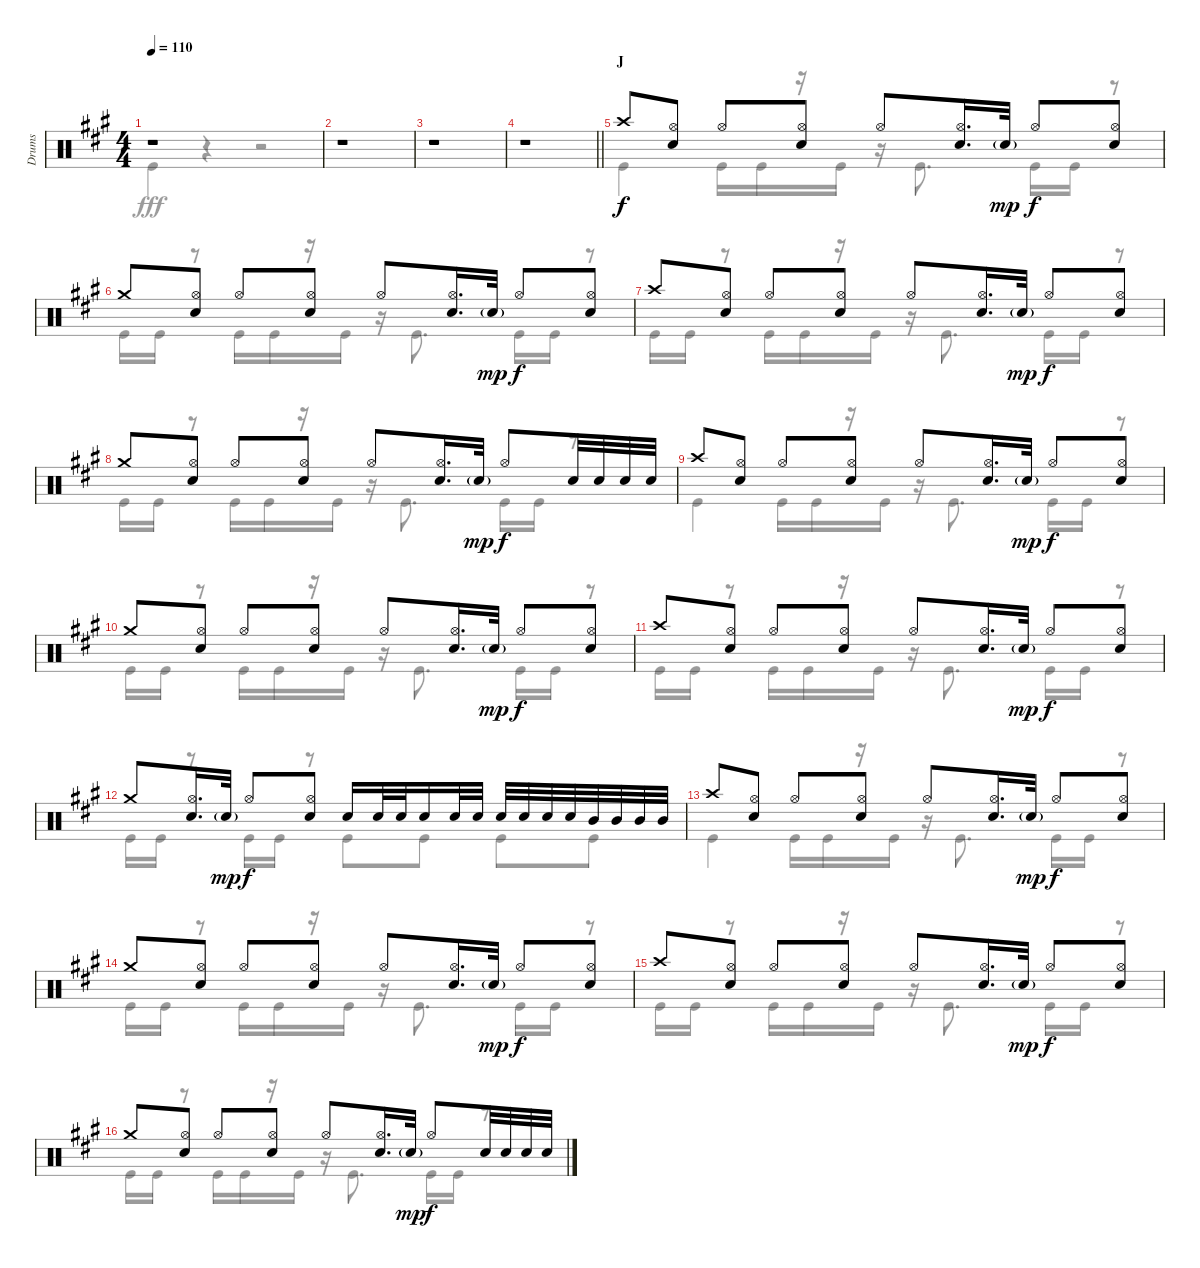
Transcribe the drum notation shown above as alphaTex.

\track ("Drums" "Drums") {instrument percussion}
\staff {score}
\articulation defaults
\voice
\ts (4 4)
\tempo 110
\clef neutral
\ks a
r.1{dy f} |
r.1 |
r.1 |
\barLineRight lightlight
r.1 |
\section ("" "J")
"Crash high (hit)".8 ("Hi-Hat (open)" "Snare (hit) 2").8 "Hi-Hat (open)".8 ("Hi-Hat (open)" "Snare (hit) 2").8 "Hi-Hat (open)".8 ("Hi-Hat (open)" "Snare (hit) 2").16{d} "Snare (hit) 2"{g}.32{dy mp} "Hi-Hat (open)".8{dy f} ("Hi-Hat (open)" "Snare (hit) 2").8 |
"Crash medium (hit)".8 ("Hi-Hat (open)" "Snare (hit) 2").8 "Hi-Hat (open)".8 ("Hi-Hat (open)" "Snare (hit) 2").8 "Hi-Hat (open)".8 ("Hi-Hat (open)" "Snare (hit) 2").16{d} "Snare (hit) 2"{g}.32{dy mp} "Hi-Hat (open)".8{dy f} ("Hi-Hat (open)" "Snare (hit) 2").8 |
"Crash high (hit)".8 ("Hi-Hat (open)" "Snare (hit) 2").8 "Hi-Hat (open)".8 ("Hi-Hat (open)" "Snare (hit) 2").8 "Hi-Hat (open)".8 ("Hi-Hat (open)" "Snare (hit) 2").16{d} "Snare (hit) 2"{g}.32{dy mp} "Hi-Hat (open)".8{dy f} ("Hi-Hat (open)" "Snare (hit) 2").8 |
"Crash medium (hit)".8 ("Hi-Hat (open)" "Snare (hit) 2").8 "Hi-Hat (open)".8 ("Hi-Hat (open)" "Snare (hit) 2").8 "Hi-Hat (open)".8 ("Hi-Hat (open)" "Snare (hit) 2").16{d} "Snare (hit) 2"{g}.32{dy mp} "Hi-Hat (open)".8{dy f} "Snare (hit) 2".32 "Snare (hit) 2".32 "Snare (hit) 2".32 "Snare (hit) 2".32 |
"Crash high (hit)".8 ("Hi-Hat (open)" "Snare (hit) 2").8 "Hi-Hat (open)".8 ("Hi-Hat (open)" "Snare (hit) 2").8 "Hi-Hat (open)".8 ("Hi-Hat (open)" "Snare (hit) 2").16{d} "Snare (hit) 2"{g}.32{dy mp} "Hi-Hat (open)".8{dy f} ("Hi-Hat (open)" "Snare (hit) 2").8 |
"Crash medium (hit)".8 ("Hi-Hat (open)" "Snare (hit) 2").8 "Hi-Hat (open)".8 ("Hi-Hat (open)" "Snare (hit) 2").8 "Hi-Hat (open)".8 ("Hi-Hat (open)" "Snare (hit) 2").16{d} "Snare (hit) 2"{g}.32{dy mp} "Hi-Hat (open)".8{dy f} ("Hi-Hat (open)" "Snare (hit) 2").8 |
"Crash high (hit)".8 ("Hi-Hat (open)" "Snare (hit) 2").8 "Hi-Hat (open)".8 ("Hi-Hat (open)" "Snare (hit) 2").8 "Hi-Hat (open)".8 ("Hi-Hat (open)" "Snare (hit) 2").16{d} "Snare (hit) 2"{g}.32{dy mp} "Hi-Hat (open)".8{dy f} ("Hi-Hat (open)" "Snare (hit) 2").8 |
"Crash medium (hit)".8 ("Hi-Hat (open)" "Snare (hit) 2").16{d} "Snare (hit) 2"{g}.32{dy mp} "Hi-Hat (open)".8{dy f} ("Hi-Hat (open)" "Snare (hit) 2").8 "Snare (hit) 2".16 "Snare (hit) 2".32 "Snare (hit) 2".32 "Snare (hit) 2".16 "Snare (hit) 2".32 "Snare (hit) 2".32 "Snare (hit) 2".32 "Snare (hit) 2".32 "Snare (hit) 2".32 "Snare (hit) 2".32 "Mid Tom (hit)".32 "Mid Tom (hit)".32 "Mid Tom (hit)".32 "Mid Tom (hit)".32 |
"Crash high (hit)".8 ("Hi-Hat (open)" "Snare (hit) 2").8 "Hi-Hat (open)".8 ("Hi-Hat (open)" "Snare (hit) 2").8 "Hi-Hat (open)".8 ("Hi-Hat (open)" "Snare (hit) 2").16{d} "Snare (hit) 2"{g}.32{dy mp} "Hi-Hat (open)".8{dy f} ("Hi-Hat (open)" "Snare (hit) 2").8 |
"Crash medium (hit)".8 ("Hi-Hat (open)" "Snare (hit) 2").8 "Hi-Hat (open)".8 ("Hi-Hat (open)" "Snare (hit) 2").8 "Hi-Hat (open)".8 ("Hi-Hat (open)" "Snare (hit) 2").16{d} "Snare (hit) 2"{g}.32{dy mp} "Hi-Hat (open)".8{dy f} ("Hi-Hat (open)" "Snare (hit) 2").8 |
"Crash high (hit)".8 ("Hi-Hat (open)" "Snare (hit) 2").8 "Hi-Hat (open)".8 ("Hi-Hat (open)" "Snare (hit) 2").8 "Hi-Hat (open)".8 ("Hi-Hat (open)" "Snare (hit) 2").16{d} "Snare (hit) 2"{g}.32{dy mp} "Hi-Hat (open)".8{dy f} ("Hi-Hat (open)" "Snare (hit) 2").8 |
"Crash medium (hit)".8 ("Hi-Hat (open)" "Snare (hit) 2").8 "Hi-Hat (open)".8 ("Hi-Hat (open)" "Snare (hit) 2").8 "Hi-Hat (open)".8 ("Hi-Hat (open)" "Snare (hit) 2").16{d} "Snare (hit) 2"{g}.32{dy mp} "Hi-Hat (open)".8{dy f} "Snare (hit) 2".32 "Snare (hit) 2".32 "Snare (hit) 2".32 "Snare (hit) 2".32
\voice
\clef neutral
\ottava regular
\simile none
\ks a "Kick (hit)".4{dy fff}
r.4 r.2 |
r.1 |
r.1 |
\barLineRight lightlight
r.1 |
"Kick (hit)".4 "Kick (hit)".16 "Kick (hit)".16 r.16 "Kick (hit)".16 r.16 "Kick (hit)".8{d} "Kick (hit)".16 "Kick (hit)".16 r.8 |
"Kick (hit)".16 "Kick (hit)".16 r.8 "Kick (hit)".16 "Kick (hit)".16 r.16 "Kick (hit)".16 r.16 "Kick (hit)".8{d} "Kick (hit)".16 "Kick (hit)".16 r.8 |
"Kick (hit)".16 "Kick (hit)".16 r.8 "Kick (hit)".16 "Kick (hit)".16 r.16 "Kick (hit)".16 r.16 "Kick (hit)".8{d} "Kick (hit)".16 "Kick (hit)".16 r.8 |
"Kick (hit)".16 "Kick (hit)".16 r.8 "Kick (hit)".16 "Kick (hit)".16 r.16 "Kick (hit)".16 r.16 "Kick (hit)".8{d} "Kick (hit)".16 "Kick (hit)".16 r.8 |
"Kick (hit)".4 "Kick (hit)".16 "Kick (hit)".16 r.16 "Kick (hit)".16 r.16 "Kick (hit)".8{d} "Kick (hit)".16 "Kick (hit)".16 r.8 |
"Kick (hit)".16 "Kick (hit)".16 r.8 "Kick (hit)".16 "Kick (hit)".16 r.16 "Kick (hit)".16 r.16 "Kick (hit)".8{d} "Kick (hit)".16 "Kick (hit)".16 r.8 |
"Kick (hit)".16 "Kick (hit)".16 r.8 "Kick (hit)".16 "Kick (hit)".16 r.16 "Kick (hit)".16 r.16 "Kick (hit)".8{d} "Kick (hit)".16 "Kick (hit)".16 r.8 |
"Kick (hit)".16 "Kick (hit)".16 r.8 "Kick (hit)".16 "Kick (hit)".16 r.8 "Kick (hit)".8 "Kick (hit)".8 "Kick (hit)".8 "Kick (hit)".8 |
"Kick (hit)".4 "Kick (hit)".16 "Kick (hit)".16 r.16 "Kick (hit)".16 r.16 "Kick (hit)".8{d} "Kick (hit)".16 "Kick (hit)".16 r.8 |
"Kick (hit)".16 "Kick (hit)".16 r.8 "Kick (hit)".16 "Kick (hit)".16 r.16 "Kick (hit)".16 r.16 "Kick (hit)".8{d} "Kick (hit)".16 "Kick (hit)".16 r.8 |
"Kick (hit)".16 "Kick (hit)".16 r.8 "Kick (hit)".16 "Kick (hit)".16 r.16 "Kick (hit)".16 r.16 "Kick (hit)".8{d} "Kick (hit)".16 "Kick (hit)".16 r.8 |
"Kick (hit)".16 "Kick (hit)".16 r.8 "Kick (hit)".16 "Kick (hit)".16 r.16 "Kick (hit)".16 r.16 "Kick (hit)".8{d} "Kick (hit)".16 "Kick (hit)".16 r.8
